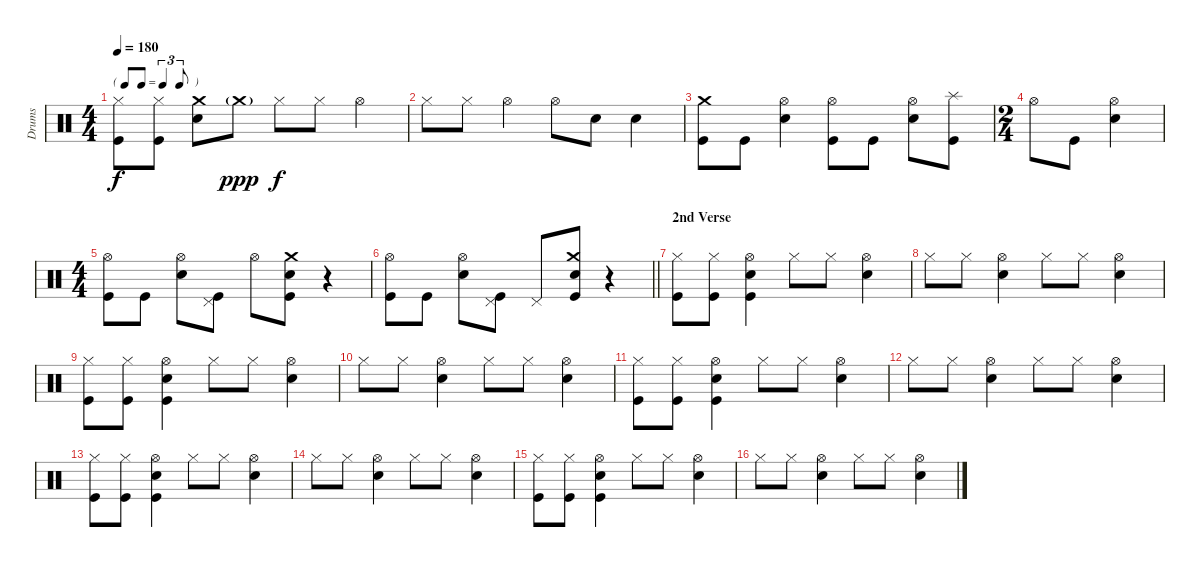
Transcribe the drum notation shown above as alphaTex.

\track ("Drums" "Drums") {instrument percussion}
\staff {score}
\articulation defaults
\ts (4 4)
\tf triplet8th
\tempo 180
\clef neutral
\ks c
("Hi-Hat (closed)" "Kick (hit)").8{dy f} ("Hi-Hat (closed)" "Kick (hit)").8 ("Crash medium (hit)" "Electric Snare (hit)").8 "Crash medium (hit)"{g}.8{dy ppp} "Hi-Hat (closed)".8{dy f} "Hi-Hat (closed)".8 "Hi-Hat (open)".4 |
"Hi-Hat (closed)".8 "Hi-Hat (closed)".8 "Hi-Hat (open)".4 "Hi-Hat (open)".8 "Electric Snare (hit)".8 "Electric Snare (hit)".4 |
("Crash medium (hit)" "Kick (hit)").8 "Kick (hit)".8 ("Hi-Hat (open)" "Electric Snare (hit)").4 ("Hi-Hat (open)" "Kick (hit)").8 "Kick (hit)".8 ("Hi-Hat (open)" "Electric Snare (hit)").8 ("Splash (hit)" "Kick (hit)").8 |
\ts (2 4)
"Hi-Hat (open)".8 "Kick (hit)".8 ("Hi-Hat (open)" "Electric Snare (hit)").4 |
\ts (4 4)
("Hi-Hat (open)" "Kick (hit)").8 "Kick (hit)".8 ("Hi-Hat (open)" "Electric Snare (hit)").8 ("Pedal Hi-Hat (hit)" "Kick (hit)").8 "Hi-Hat (open)"{x}.8 ("Crash medium (hit)" "Electric Snare (hit)" "Kick (hit)").8 r.4 |
\barLineRight lightlight
("Hi-Hat (open)" "Kick (hit)").8 "Kick (hit)".8 ("Hi-Hat (open)" "Electric Snare (hit)").8 ("Pedal Hi-Hat (hit)" "Kick (hit)").8 "Pedal Hi-Hat (hit)"{x}.8 ("Crash medium (hit)" "Electric Snare (hit)" "Kick (hit)").8 r.4 |
\section ("" "2nd Verse")
("Hi-Hat (closed)" "Kick (hit)").8 ("Hi-Hat (closed)" "Kick (hit)").8 ("Hi-Hat (open)" "Electric Snare (hit)" "Kick (hit)").4 "Hi-Hat (closed)".8 "Hi-Hat (closed)".8 ("Hi-Hat (open)" "Electric Snare (hit)").4 |
"Hi-Hat (closed)".8 "Hi-Hat (closed)".8 ("Hi-Hat (open)" "Electric Snare (hit)").4 "Hi-Hat (closed)".8 "Hi-Hat (closed)".8 ("Hi-Hat (open)" "Electric Snare (hit)").4 |
("Hi-Hat (closed)" "Kick (hit)").8 ("Hi-Hat (closed)" "Kick (hit)").8 ("Hi-Hat (open)" "Electric Snare (hit)" "Kick (hit)").4 "Hi-Hat (closed)".8 "Hi-Hat (closed)".8 ("Hi-Hat (open)" "Electric Snare (hit)").4 |
"Hi-Hat (closed)".8 "Hi-Hat (closed)".8 ("Hi-Hat (open)" "Electric Snare (hit)").4 "Hi-Hat (closed)".8 "Hi-Hat (closed)".8 ("Hi-Hat (open)" "Electric Snare (hit)").4 |
("Hi-Hat (closed)" "Kick (hit)").8 ("Hi-Hat (closed)" "Kick (hit)").8 ("Hi-Hat (open)" "Electric Snare (hit)" "Kick (hit)").4 "Hi-Hat (closed)".8 "Hi-Hat (closed)".8 ("Hi-Hat (open)" "Electric Snare (hit)").4 |
"Hi-Hat (closed)".8 "Hi-Hat (closed)".8 ("Hi-Hat (open)" "Electric Snare (hit)").4 "Hi-Hat (closed)".8 "Hi-Hat (closed)".8 ("Hi-Hat (open)" "Electric Snare (hit)").4 |
("Hi-Hat (closed)" "Kick (hit)").8 ("Hi-Hat (closed)" "Kick (hit)").8 ("Hi-Hat (open)" "Electric Snare (hit)" "Kick (hit)").4 "Hi-Hat (closed)".8 "Hi-Hat (closed)".8 ("Hi-Hat (open)" "Electric Snare (hit)").4 |
"Hi-Hat (closed)".8 "Hi-Hat (closed)".8 ("Hi-Hat (open)" "Electric Snare (hit)").4 "Hi-Hat (closed)".8 "Hi-Hat (closed)".8 ("Hi-Hat (open)" "Electric Snare (hit)").4 |
("Hi-Hat (closed)" "Kick (hit)").8 ("Hi-Hat (closed)" "Kick (hit)").8 ("Hi-Hat (open)" "Electric Snare (hit)" "Kick (hit)").4 "Hi-Hat (closed)".8 "Hi-Hat (closed)".8 ("Hi-Hat (open)" "Electric Snare (hit)").4 |
"Hi-Hat (closed)".8 "Hi-Hat (closed)".8 ("Hi-Hat (open)" "Electric Snare (hit)").4 "Hi-Hat (closed)".8 "Hi-Hat (closed)".8 ("Hi-Hat (open)" "Electric Snare (hit)").4
